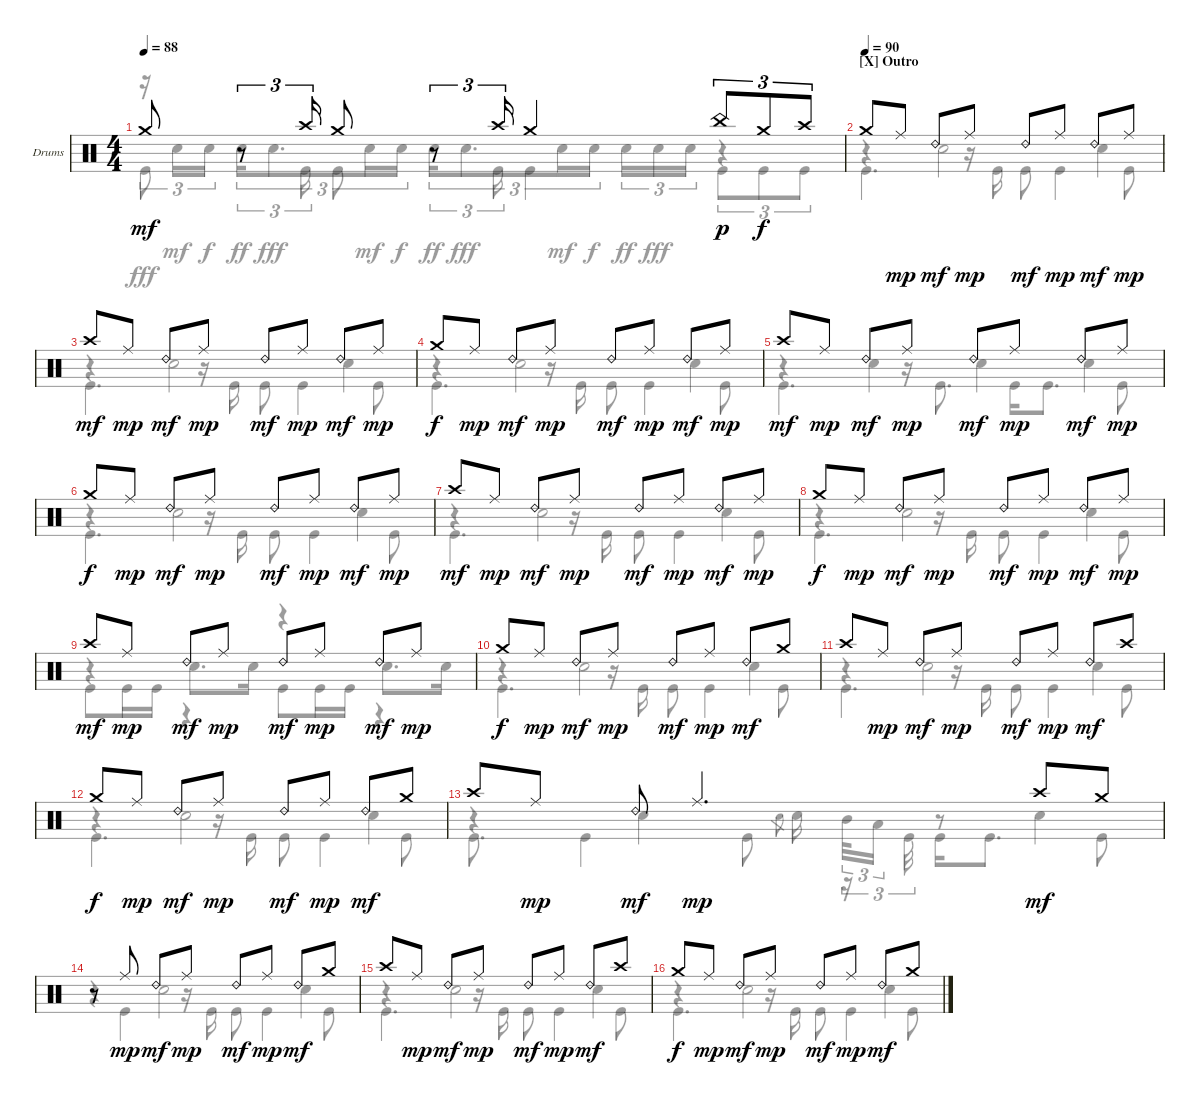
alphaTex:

\defaultSystemsLayout 4
\bracketExtendMode groupsimilarinstruments
\firstSystemTrackNameOrientation horizontal
\otherSystemsTrackNameOrientation horizontal
\track ("Drumkit" "Drums") {instrument percussion}
\staff {score}
\articulation defaults
\voice
\ts (4 4)
\tempo 88
\clef neutral
\ks c "Crash medium (hit)".8{dy mf}
r.8{tu (3 2)} "Crash high (hit)".16{tu (3 2)} "Crash medium (hit)".8 r.8{tu (3 2)} "Crash high (hit)".16{tu (3 2)} "Crash medium (hit)".4 "China (hit)".8{tu (3 2) dy p} "Crash medium (hit)".8{tu (3 2) dy f} "Crash high (hit)".8{tu (3 2)} |
\section ("X" "Outro")
\tempo (90)
"Crash medium (hit)".8 "Ride (middle)".8{dy mp} "Ride (bell) 2".8{dy mf} "Ride (middle)".8{dy mp} "Ride (bell) 2".8{dy mf} "Ride (middle)".8{dy mp} "Ride (bell) 2".8{dy mf} "Ride (middle)".8{dy mp} |
"Crash high (hit)".8{dy mf} "Ride (middle)".8{dy mp} "Ride (bell) 2".8{dy mf} "Ride (middle)".8{dy mp} "Ride (bell) 2".8{dy mf} "Ride (middle)".8{dy mp} "Ride (bell) 2".8{dy mf} "Ride (middle)".8{dy mp} |
"Crash medium (hit)".8{dy f} "Ride (middle)".8{dy mp} "Ride (bell) 2".8{dy mf} "Ride (middle)".8{dy mp} "Ride (bell) 2".8{dy mf} "Ride (middle)".8{dy mp} "Ride (bell) 2".8{dy mf} "Ride (middle)".8{dy mp} |
"Crash high (hit)".8{dy mf} "Ride (middle)".8{dy mp} "Ride (bell) 2".8{dy mf} "Ride (middle)".8{dy mp} "Ride (bell) 2".8{dy mf} "Ride (middle)".8{dy mp} "Ride (bell) 2".8{dy mf} "Ride (middle)".8{dy mp} |
"Crash medium (hit)".8{dy f} "Ride (middle)".8{dy mp} "Ride (bell) 2".8{dy mf} "Ride (middle)".8{dy mp} "Ride (bell) 2".8{dy mf} "Ride (middle)".8{dy mp} "Ride (bell) 2".8{dy mf} "Ride (middle)".8{dy mp} |
"Crash high (hit)".8{dy mf} "Ride (middle)".8{dy mp} "Ride (bell) 2".8{dy mf} "Ride (middle)".8{dy mp} "Ride (bell) 2".8{dy mf} "Ride (middle)".8{dy mp} "Ride (bell) 2".8{dy mf} "Ride (middle)".8{dy mp} |
"Crash medium (hit)".8{dy f} "Ride (middle)".8{dy mp} "Ride (bell) 2".8{dy mf} "Ride (middle)".8{dy mp} "Ride (bell) 2".8{dy mf} "Ride (middle)".8{dy mp} "Ride (bell) 2".8{dy mf} "Ride (middle)".8{dy mp} |
"Crash high (hit)".8{dy mf} "Ride (middle)".8{dy mp} "Ride (bell) 2".8{dy mf} "Ride (middle)".8{dy mp} "Ride (bell) 2".8{dy mf} "Ride (middle)".8{dy mp} "Ride (bell) 2".8{dy mf} "Ride (middle)".8{dy mp} |
"Crash medium (hit)".8{dy f} "Ride (middle)".8{dy mp} "Ride (bell) 2".8{dy mf} "Ride (middle)".8{dy mp} "Ride (bell) 2".8{dy mf} "Ride (middle)".8{dy mp} "Ride (bell) 2".8{dy mf} "Crash medium (hit)".8 |
"Crash high (hit)".8 "Ride (middle)".8{dy mp} "Ride (bell) 2".8{dy mf} "Ride (middle)".8{dy mp} "Ride (bell) 2".8{dy mf} "Ride (middle)".8{dy mp} "Ride (bell) 2".8{dy mf} "Crash high (hit)".8 |
"Crash medium (hit)".8{dy f} "Ride (middle)".8{dy mp} "Ride (bell) 2".8{dy mf} "Ride (middle)".8{dy mp} "Ride (bell) 2".8{dy mf} "Ride (middle)".8{dy mp} "Ride (bell) 2".8{dy mf} "Crash medium (hit)".8 |
"Crash high (hit)".8 "Ride (middle)".8{dy mp} "Ride (bell) 2".8{dy mf} "Ride (middle)".4{d dy mp} "Crash high (hit)".8{dy mf} "Crash medium (hit)".8 |
r.8 "Ride (middle)".8{dy mp} "Ride (bell) 2".8{dy mf} "Ride (middle)".8{dy mp} "Ride (bell) 2".8{dy mf} "Ride (middle)".8{dy mp} "Ride (bell) 2".8{dy mf} "Crash medium (hit)".8 |
"Crash high (hit)".8 "Ride (middle)".8{dy mp} "Ride (bell) 2".8{dy mf} "Ride (middle)".8{dy mp} "Ride (bell) 2".8{dy mf} "Ride (middle)".8{dy mp} "Ride (bell) 2".8{dy mf} "Crash high (hit)".8 |
"Crash medium (hit)".8{dy f} "Ride (middle)".8{dy mp} "Ride (bell) 2".8{dy mf} "Ride (middle)".8{dy mp} "Ride (bell) 2".8{dy mf} "Ride (middle)".8{dy mp} "Ride (bell) 2".8{dy mf} "Crash medium (hit)".8
\voice
\clef neutral
\ottava regular
\simile none
\ks c
r.16{tu (3 2) dy fff} "Snare (hit) 2".16{tu (3 2) dy mf} "Snare (hit) 2".16{tu (3 2) dy f} "Snare (hit) 2".16{tu (3 2) dy ff} "Snare (hit) 2".8{d tu (3 2) dy fff} "Snare (hit) 2".16{tu (3 2) dy mf} "Snare (hit) 2".16{tu (3 2) dy f} "Snare (hit) 2".16{tu (3 2) dy ff} "Snare (hit) 2".8{d tu (3 2) dy fff} "Snare (hit) 2".16{tu (3 2) dy mf} "Snare (hit) 2".16{tu (3 2) dy f} "Snare (hit) 2".16{tu (3 2) dy ff} "Snare (hit) 2".16{tu (3 2) dy fff} "Snare (hit) 2".16{tu (3 2)} r.4 |
r.4 "Snare (hit) 2".2 "Snare (hit) 2".4 |
r.4 "Snare (hit) 2".2 "Snare (hit) 2".4 |
r.4 "Snare (hit) 2".2 "Snare (hit) 2".4 |
r.4 "Snare (hit) 2".4 "Snare (hit) 2".4 "Snare (hit) 2".4 |
r.4 "Snare (hit) 2".2 "Snare (hit) 2".4 |
r.4 "Snare (hit) 2".2 "Snare (hit) 2".4 |
r.4 "Snare (hit) 2".2 "Snare (hit) 2".4 |
r.4 "Snare (hit) 2".8{d} "Snare (hit) 2".16 r.4 "Snare (hit) 2".8{d} "Snare (hit) 2".16 |
r.4 "Snare (hit) 2".2 "Snare (hit) 2".4 |
r.4 "Snare (hit) 2".2 "Snare (hit) 2".4 |
r.4 "Snare (hit) 2".2 "Snare (hit) 2".4 |
r.4 "Snare (hit) 2".4 "Snare (hit) 2".8{gr} "Snare (hit) 2".16 "Mid Tom (hit)".32{tu (3 2)} "Low Tom (hit)".16{tu (3 2)} r.8 "Snare (hit) 2".4 |
r.4 "Snare (hit) 2".2 "Snare (hit) 2".4 |
r.4 "Snare (hit) 2".2 "Snare (hit) 2".4 |
r.4 "Snare (hit) 2".2 "Snare (hit) 2".4
\voice
\clef neutral
\ottava regular
\simile none
\ks c "Kick (hit)".8{dy fff}
r.8{tu (3 2)} "Kick (hit)".16{tu (3 2)} "Kick (hit)".8 r.8{tu (3 2)} "Kick (hit)".16{tu (3 2)} "Kick (hit)".4 "Kick (hit)".8{tu (3 2)} "Kick (hit)".8{tu (3 2)} "Kick (hit)".8{tu (3 2)} |
"Kick (hit)".4{d} r.16 "Kick (hit)".16 "Kick (hit)".8 "Kick (hit)".4 "Kick (hit)".8 |
"Kick (hit)".4{d} r.16 "Kick (hit)".16 "Kick (hit)".8 "Kick (hit)".4 "Kick (hit)".8 |
"Kick (hit)".4{d} r.16 "Kick (hit)".16 "Kick (hit)".8 "Kick (hit)".4 "Kick (hit)".8 |
"Kick (hit)".4{d} r.16 "Kick (hit)".8{d} "Kick (hit)".16 "Kick (hit)".8{d} "Kick (hit)".8 |
"Kick (hit)".4{d} r.16 "Kick (hit)".16 "Kick (hit)".8 "Kick (hit)".4 "Kick (hit)".8 |
"Kick (hit)".4{d} r.16 "Kick (hit)".16 "Kick (hit)".8 "Kick (hit)".4 "Kick (hit)".8 |
"Kick (hit)".4{d} r.16 "Kick (hit)".16 "Kick (hit)".8 "Kick (hit)".4 "Kick (hit)".8 |
"Kick (hit)".8 "Kick (hit)".16 "Kick (hit)".16 r.4 "Kick (hit)".8 "Kick (hit)".16 "Kick (hit)".16 r.4 |
"Kick (hit)".4{d} r.16 "Kick (hit)".16 "Kick (hit)".8 "Kick (hit)".4 "Kick (hit)".8 |
"Kick (hit)".4{d} r.16 "Kick (hit)".16 "Kick (hit)".8 "Kick (hit)".4 "Kick (hit)".8 |
"Kick (hit)".4{d} r.16 "Kick (hit)".16 "Kick (hit)".8 "Kick (hit)".4 "Kick (hit)".8 |
"Kick (hit)".8{d} "Kick (hit)".4 "Kick (hit)".8 r.16{tu (3 2)} "Kick (hit)".32{tu (3 2)} "Kick (hit)".16 "Kick (hit)".8{d} "Kick (hit)".8 |
r.8 "Kick (hit)".4 r.16 "Kick (hit)".16 "Kick (hit)".8 "Kick (hit)".4 "Kick (hit)".8 |
"Kick (hit)".4{d} r.16 "Kick (hit)".16 "Kick (hit)".8 "Kick (hit)".4 "Kick (hit)".8 |
"Kick (hit)".4{d} r.16 "Kick (hit)".16 "Kick (hit)".8 "Kick (hit)".4 "Kick (hit)".8
